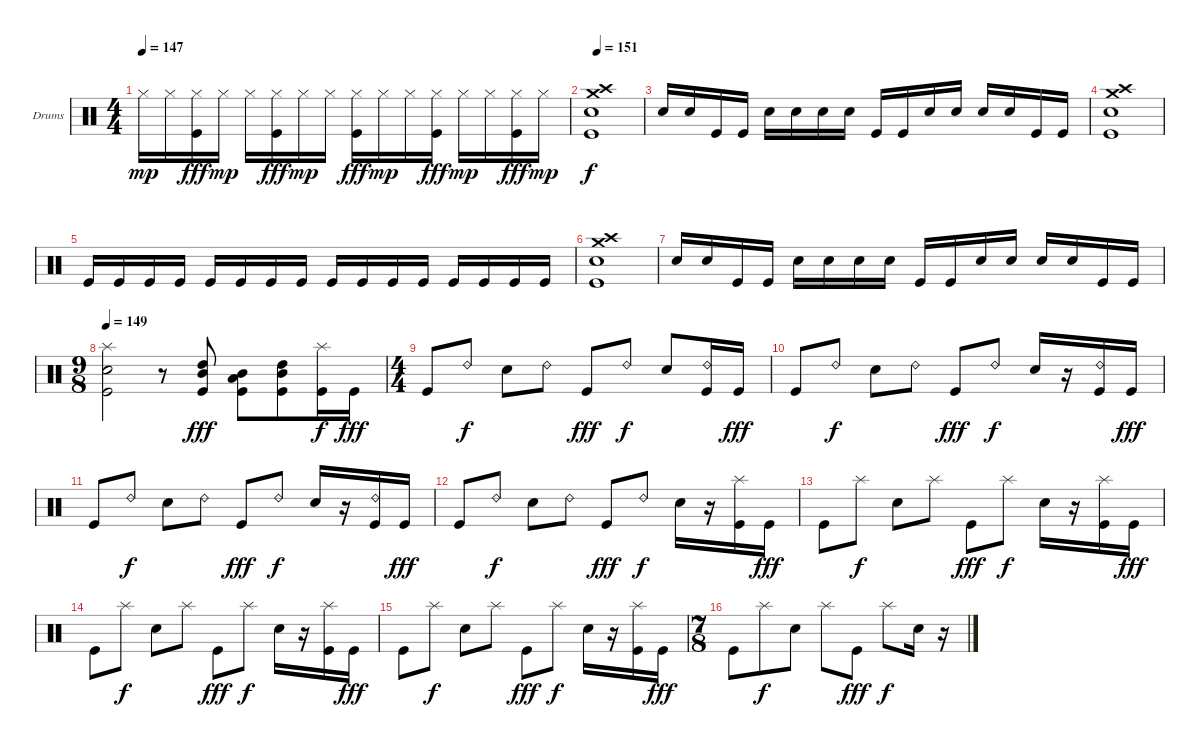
\bracketExtendMode groupsimilarinstruments
\firstSystemTrackNameOrientation horizontal
\otherSystemsTrackNameOrientation horizontal
\track ("Ударные" "Drums") {instrument percussion}
\staff {score}
\articulation defaults
\ts (4 4)
\tempo 147
\clef neutral
\ks c "Hi-Hat (closed)".16{dy mp} "Hi-Hat (closed)".16
("Hi-Hat (closed)" "Kick (hit)").16{dy fff} "Hi-Hat (closed)".16{dy mp} "Hi-Hat (closed)".16 ("Hi-Hat (closed)" "Kick (hit)").16{dy fff} "Hi-Hat (closed)".16{dy mp} "Hi-Hat (closed)".16 ("Hi-Hat (closed)" "Kick (hit)").16{dy fff} "Hi-Hat (closed)".16{dy mp} "Hi-Hat (closed)".16 ("Hi-Hat (closed)" "Kick (hit)").16{dy fff} "Hi-Hat (closed)".16{dy mp} "Hi-Hat (closed)".16 ("Hi-Hat (closed)" "Kick (hit)").16{dy fff} "Hi-Hat (closed)".16{dy mp} |
\tempo 151
("Crash medium (hit)" "Crash high (hit)" "Snare (hit) 2" "Kick (hit)").1{dy f} |
"Snare (hit) 2".16 "Snare (hit) 2".16 "Kick (hit)".16 "Kick (hit)".16 "Snare (hit) 2".16 "Snare (hit) 2".16 "Snare (hit) 2".16 "Snare (hit) 2".16 "Kick (hit)".16 "Kick (hit)".16 "Snare (hit) 2".16 "Snare (hit) 2".16 "Snare (hit) 2".16 "Snare (hit) 2".16 "Kick (hit)".16 "Kick (hit)".16 |
("Crash medium (hit)" "Crash high (hit)" "Snare (hit) 2" "Kick (hit)").1 |
"Kick (hit)".16 "Kick (hit)".16 "Kick (hit)".16 "Kick (hit)".16 "Kick (hit)".16 "Kick (hit)".16 "Kick (hit)".16 "Kick (hit)".16 "Kick (hit)".16 "Kick (hit)".16 "Kick (hit)".16 "Kick (hit)".16 "Kick (hit)".16 "Kick (hit)".16 "Kick (hit)".16 "Kick (hit)".16 |
("Crash medium (hit)" "Crash high (hit)" "Snare (hit) 2" "Kick (hit)").1 |
"Snare (hit) 2".16 "Snare (hit) 2".16 "Kick (hit)".16 "Kick (hit)".16 "Snare (hit) 2".16 "Snare (hit) 2".16 "Snare (hit) 2".16 "Snare (hit) 2".16 "Kick (hit)".16 "Kick (hit)".16 "Snare (hit) 2".16 "Snare (hit) 2".16 "Snare (hit) 2".16 "Snare (hit) 2".16 "Kick (hit)".16 "Kick (hit)".16 |
\ts (9 8)
\beaming (8 3 3 3)
\tempo 149
("Splash (hit)" "Snare (hit) 2" "Kick (hit)").2 r.8 ("Mid Tom (hit)" "High Tom (hit)" "Kick (hit)").8{dy fff} ("Low Tom (hit)" "Mid Tom (hit)" "Kick (hit)").8 ("Mid Tom (hit)" "High Tom (hit)" "Kick (hit)").8 ("Splash (hit)" "Kick (hit)").16{dy f} "Kick (hit)".16{dy fff} |
\ts (4 4)
\beaming (8 2 2 2 2)
"Kick (hit)".8 "Ride (bell) 2".8{dy f} "Snare (hit) 2".8 "Ride (bell) 2".8 "Kick (hit)".8{dy fff} "Ride (bell) 2".8{dy f} "Snare (hit) 2".8 ("Ride (bell) 2" "Kick (hit)").16 "Kick (hit)".16{dy fff} |
"Kick (hit)".8 "Ride (bell) 2".8{dy f} "Snare (hit) 2".8 "Ride (bell) 2".8 "Kick (hit)".8{dy fff} "Ride (bell) 2".8{dy f} "Snare (hit) 2".16 r.16 ("Ride (bell) 2" "Kick (hit)").16 "Kick (hit)".16{dy fff} |
"Kick (hit)".8 "Ride (bell) 2".8{dy f} "Snare (hit) 2".8 "Ride (bell) 2".8 "Kick (hit)".8{dy fff} "Ride (bell) 2".8{dy f} "Snare (hit) 2".16 r.16 ("Ride (bell) 2" "Kick (hit)").16 "Kick (hit)".16{dy fff} |
"Kick (hit)".8 "Ride (bell) 2".8{dy f} "Snare (hit) 2".8 "Ride (bell) 2".8 "Kick (hit)".8{dy fff} "Ride (bell) 2".8{dy f} "Snare (hit) 2".16 r.16 ("Splash (hit)" "Kick (hit)").16 "Kick (hit)".16{dy fff} |
"Kick (hit)".8 "Splash (hit)".8{dy f} "Snare (hit) 2".8 "Splash (hit)".8 "Kick (hit)".8{dy fff} "Splash (hit)".8{dy f} "Snare (hit) 2".16 r.16 ("Splash (hit)" "Kick (hit)").16 "Kick (hit)".16{dy fff} |
"Kick (hit)".8 "Splash (hit)".8{dy f} "Snare (hit) 2".8 "Splash (hit)".8 "Kick (hit)".8{dy fff} "Splash (hit)".8{dy f} "Snare (hit) 2".16 r.16 ("Splash (hit)" "Kick (hit)").16 "Kick (hit)".16{dy fff} |
"Kick (hit)".8 "Splash (hit)".8{dy f} "Snare (hit) 2".8 "Splash (hit)".8 "Kick (hit)".8{dy fff} "Splash (hit)".8{dy f} "Snare (hit) 2".16 r.16 ("Splash (hit)" "Kick (hit)").16 "Kick (hit)".16{dy fff} |
\ts (7 8)
\beaming (8 3 2 2)
"Kick (hit)".8 "Splash (hit)".8{dy f} "Snare (hit) 2".8 "Splash (hit)".8 "Kick (hit)".8{dy fff} "Splash (hit)".8{dy f} "Snare (hit) 2".16 r.16
